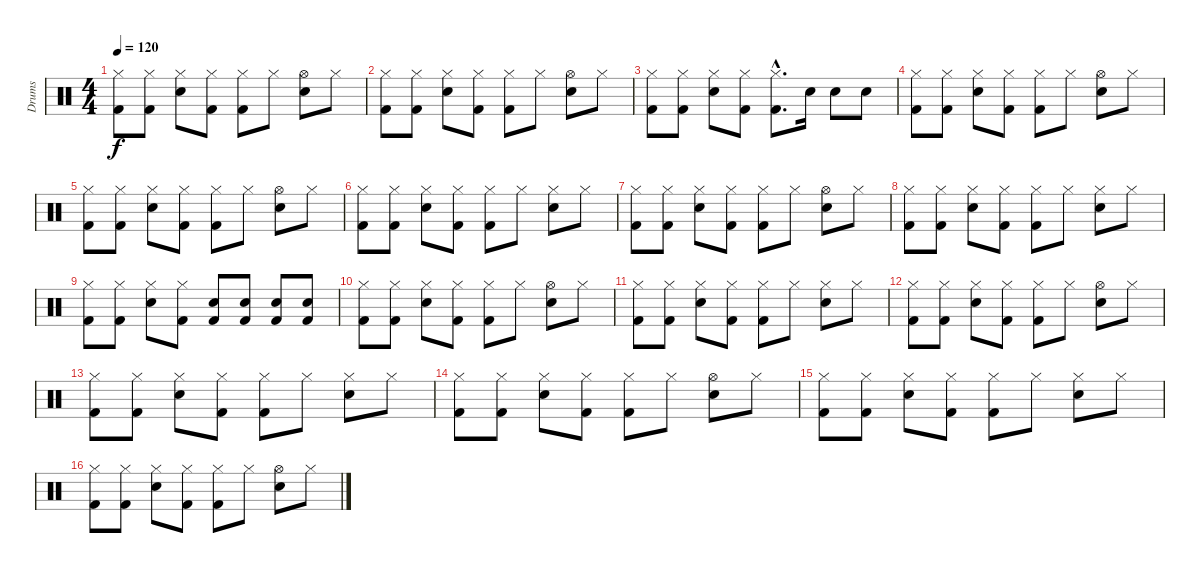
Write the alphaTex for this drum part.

\track ("Drums " "Drums ") {instrument percussion}
\staff {score}
\articulation defaults
\ts (4 4)
\tempo 120
\clef neutral
\ks c
("Kick (hit) 2" "Hi-Hat (closed)").8{dy f} ("Kick (hit) 2" "Hi-Hat (closed)").8 ("Electric Snare (hit)" "Hi-Hat (closed)").8 ("Kick (hit) 2" "Hi-Hat (closed)").8 ("Kick (hit) 2" "Hi-Hat (closed)").8 "Hi-Hat (closed)".8 ("Electric Snare (hit)" "Hi-Hat (open)").8 "Hi-Hat (closed)".8 |
("Kick (hit) 2" "Hi-Hat (closed)").8 ("Kick (hit) 2" "Hi-Hat (closed)").8 ("Electric Snare (hit)" "Hi-Hat (closed)").8 ("Kick (hit) 2" "Hi-Hat (closed)").8 ("Kick (hit) 2" "Hi-Hat (closed)").8 "Hi-Hat (closed)".8 ("Electric Snare (hit)" "Hi-Hat (open)").8 "Hi-Hat (closed)".8 |
("Kick (hit) 2" "Hi-Hat (closed)").8 ("Kick (hit) 2" "Hi-Hat (closed)").8 ("Electric Snare (hit)" "Hi-Hat (closed)").8 ("Kick (hit) 2" "Hi-Hat (closed)").8 ("Kick (hit) 2"{hac} "Hi-Hat (closed)"{hac}).8{d} "Electric Snare (hit)".16 "Electric Snare (hit)".8 "Electric Snare (hit)".8 |
("Kick (hit) 2" "Hi-Hat (closed)").8 ("Kick (hit) 2" "Hi-Hat (closed)").8 ("Electric Snare (hit)" "Hi-Hat (closed)").8 ("Kick (hit) 2" "Hi-Hat (closed)").8 ("Kick (hit) 2" "Hi-Hat (closed)").8 "Hi-Hat (closed)".8 ("Electric Snare (hit)" "Hi-Hat (open)").8 "Hi-Hat (closed)".8 |
("Kick (hit) 2" "Hi-Hat (closed)").8 ("Kick (hit) 2" "Hi-Hat (closed)").8 ("Electric Snare (hit)" "Hi-Hat (closed)").8 ("Kick (hit) 2" "Hi-Hat (closed)").8 ("Kick (hit) 2" "Hi-Hat (closed)").8 "Hi-Hat (closed)".8 ("Electric Snare (hit)" "Hi-Hat (open)").8 "Hi-Hat (closed)".8 |
("Kick (hit) 2" "Hi-Hat (closed)").8 ("Kick (hit) 2" "Hi-Hat (closed)").8 ("Electric Snare (hit)" "Hi-Hat (closed)").8 ("Kick (hit) 2" "Hi-Hat (closed)").8 ("Kick (hit) 2" "Hi-Hat (closed)").8 "Hi-Hat (closed)".8 ("Electric Snare (hit)" "Hi-Hat (closed)").8 "Hi-Hat (closed)".8 |
("Kick (hit) 2" "Hi-Hat (closed)").8 ("Kick (hit) 2" "Hi-Hat (closed)").8 ("Electric Snare (hit)" "Hi-Hat (closed)").8 ("Kick (hit) 2" "Hi-Hat (closed)").8 ("Kick (hit) 2" "Hi-Hat (closed)").8 "Hi-Hat (closed)".8 ("Electric Snare (hit)" "Hi-Hat (open)").8 "Hi-Hat (closed)".8 |
("Kick (hit) 2" "Hi-Hat (closed)").8 ("Kick (hit) 2" "Hi-Hat (closed)").8 ("Electric Snare (hit)" "Hi-Hat (closed)").8 ("Kick (hit) 2" "Hi-Hat (closed)").8 ("Kick (hit) 2" "Hi-Hat (closed)").8 "Hi-Hat (closed)".8 ("Electric Snare (hit)" "Hi-Hat (closed)").8 "Hi-Hat (closed)".8 |
("Kick (hit) 2" "Hi-Hat (closed)").8 ("Kick (hit) 2" "Hi-Hat (closed)").8 ("Electric Snare (hit)" "Hi-Hat (closed)").8 ("Kick (hit) 2" "Hi-Hat (closed)").8 ("Kick (hit) 2" "Electric Snare (hit)").8 ("Kick (hit) 2" "Electric Snare (hit)").8 ("Kick (hit) 2" "Electric Snare (hit)").8 ("Kick (hit) 2" "Electric Snare (hit)").8 |
("Kick (hit) 2" "Hi-Hat (closed)").8 ("Kick (hit) 2" "Hi-Hat (closed)").8 ("Electric Snare (hit)" "Hi-Hat (closed)").8 ("Kick (hit) 2" "Hi-Hat (closed)").8 ("Kick (hit) 2" "Hi-Hat (closed)").8 "Hi-Hat (closed)".8 ("Electric Snare (hit)" "Hi-Hat (open)").8 "Hi-Hat (closed)".8 |
("Kick (hit) 2" "Hi-Hat (closed)").8 ("Kick (hit) 2" "Hi-Hat (closed)").8 ("Electric Snare (hit)" "Hi-Hat (closed)").8 ("Kick (hit) 2" "Hi-Hat (closed)").8 ("Kick (hit) 2" "Hi-Hat (closed)").8 "Hi-Hat (closed)".8 ("Electric Snare (hit)" "Hi-Hat (closed)").8 "Hi-Hat (closed)".8 |
("Kick (hit) 2" "Hi-Hat (closed)").8 ("Kick (hit) 2" "Hi-Hat (closed)").8 ("Electric Snare (hit)" "Hi-Hat (closed)").8 ("Kick (hit) 2" "Hi-Hat (closed)").8 ("Kick (hit) 2" "Hi-Hat (closed)").8 "Hi-Hat (closed)".8 ("Electric Snare (hit)" "Hi-Hat (open)").8 "Hi-Hat (closed)".8 |
("Kick (hit) 2" "Hi-Hat (closed)").8 ("Kick (hit) 2" "Hi-Hat (closed)").8 ("Electric Snare (hit)" "Hi-Hat (closed)").8 ("Kick (hit) 2" "Hi-Hat (closed)").8 ("Kick (hit) 2" "Hi-Hat (closed)").8 "Hi-Hat (closed)".8 ("Electric Snare (hit)" "Hi-Hat (closed)").8 "Hi-Hat (closed)".8 |
("Kick (hit) 2" "Hi-Hat (closed)").8 ("Kick (hit) 2" "Hi-Hat (closed)").8 ("Electric Snare (hit)" "Hi-Hat (closed)").8 ("Kick (hit) 2" "Hi-Hat (closed)").8 ("Kick (hit) 2" "Hi-Hat (closed)").8 "Hi-Hat (closed)".8 ("Electric Snare (hit)" "Hi-Hat (open)").8 "Hi-Hat (closed)".8 |
("Kick (hit) 2" "Hi-Hat (closed)").8 ("Kick (hit) 2" "Hi-Hat (closed)").8 ("Electric Snare (hit)" "Hi-Hat (closed)").8 ("Kick (hit) 2" "Hi-Hat (closed)").8 ("Kick (hit) 2" "Hi-Hat (closed)").8 "Hi-Hat (closed)".8 ("Electric Snare (hit)" "Hi-Hat (closed)").8 "Hi-Hat (closed)".8 |
("Kick (hit) 2" "Hi-Hat (closed)").8 ("Kick (hit) 2" "Hi-Hat (closed)").8 ("Electric Snare (hit)" "Hi-Hat (closed)").8 ("Kick (hit) 2" "Hi-Hat (closed)").8 ("Kick (hit) 2" "Hi-Hat (closed)").8 "Hi-Hat (closed)".8 ("Electric Snare (hit)" "Hi-Hat (open)").8 "Hi-Hat (closed)".8
